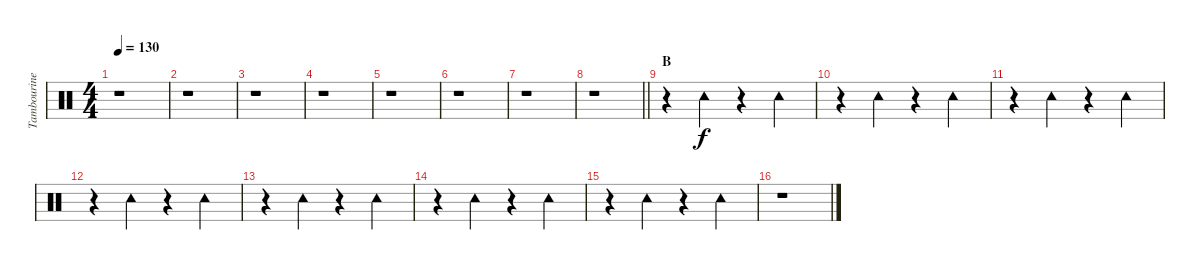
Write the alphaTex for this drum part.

\track ("Tambourine" "Tambourine") {instrument percussion}
\staff {score}
\articulation defaults
\ts (4 4)
\tempo 130
\clef neutral
\ks c
r.1{dy f} |
r.1 |
r.1 |
r.1 |
r.1 |
r.1 |
r.1 |
\barLineRight lightlight
r.1 |
\section ("" "B")
r.4 "Tambourine (hit)".4 r.4 "Tambourine (hit)".4 |
r.4 "Tambourine (hit)".4 r.4 "Tambourine (hit)".4 |
r.4 "Tambourine (hit)".4 r.4 "Tambourine (hit)".4 |
r.4 "Tambourine (hit)".4 r.4 "Tambourine (hit)".4 |
r.4 "Tambourine (hit)".4 r.4 "Tambourine (hit)".4 |
r.4 "Tambourine (hit)".4 r.4 "Tambourine (hit)".4 |
r.4 "Tambourine (hit)".4 r.4 "Tambourine (hit)".4 |
r.1
